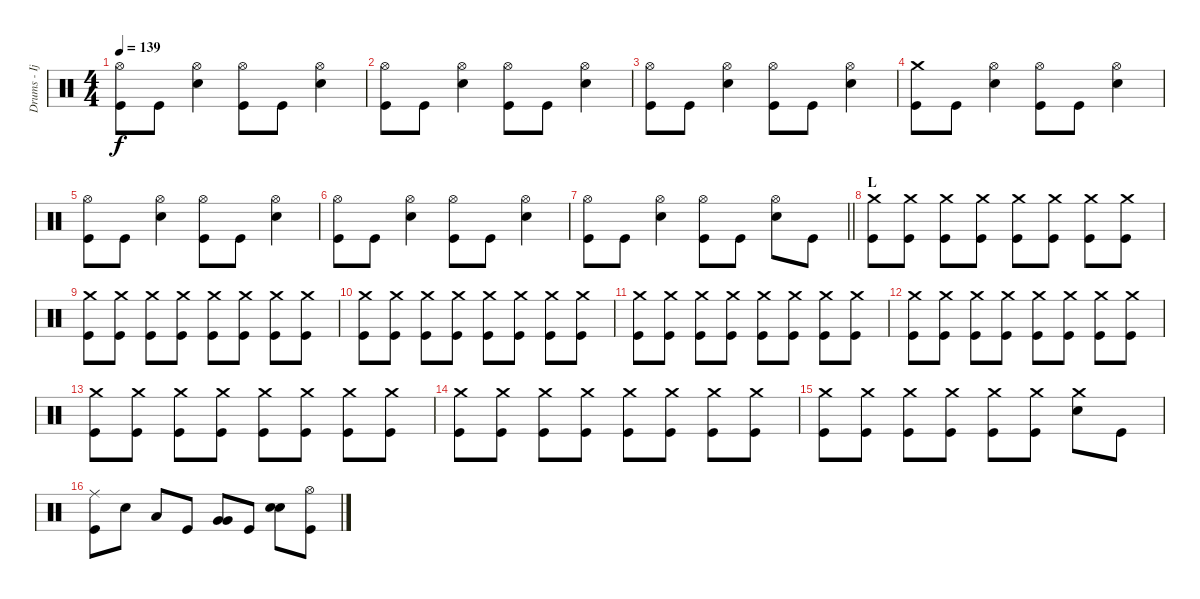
\track ("Drums - Ijichi" "Drums - Ij") {instrument percussion}
\staff {score}
\articulation defaults
\ts (4 4)
\tempo 139
\clef neutral
\ks c
("Hi-Hat (open)" "Kick (hit)").8{dy f} "Kick (hit)".8 ("Hi-Hat (open)" "Electric Snare (hit)").4 ("Hi-Hat (open)" "Kick (hit)").8 "Kick (hit)".8 ("Hi-Hat (open)" "Electric Snare (hit)").4 |
("Hi-Hat (open)" "Kick (hit)").8 "Kick (hit)".8 ("Hi-Hat (open)" "Electric Snare (hit)").4 ("Hi-Hat (open)" "Kick (hit)").8 "Kick (hit)".8 ("Hi-Hat (open)" "Electric Snare (hit)").4 |
("Hi-Hat (open)" "Kick (hit)").8 "Kick (hit)".8 ("Hi-Hat (open)" "Electric Snare (hit)").4 ("Hi-Hat (open)" "Kick (hit)").8 "Kick (hit)".8 ("Hi-Hat (open)" "Electric Snare (hit)").4 |
("Crash medium (hit)" "Kick (hit)").8 "Kick (hit)".8 ("Hi-Hat (open)" "Electric Snare (hit)").4 ("Hi-Hat (open)" "Kick (hit)").8 "Kick (hit)".8 ("Hi-Hat (open)" "Electric Snare (hit)").4 |
("Hi-Hat (open)" "Kick (hit)").8 "Kick (hit)".8 ("Hi-Hat (open)" "Electric Snare (hit)").4 ("Hi-Hat (open)" "Kick (hit)").8 "Kick (hit)".8 ("Hi-Hat (open)" "Electric Snare (hit)").4 |
("Hi-Hat (open)" "Kick (hit)").8 "Kick (hit)".8 ("Hi-Hat (open)" "Electric Snare (hit)").4 ("Hi-Hat (open)" "Kick (hit)").8 "Kick (hit)".8 ("Hi-Hat (open)" "Electric Snare (hit)").4 |
\barLineRight lightlight
("Hi-Hat (open)" "Kick (hit)").8 "Kick (hit)".8 ("Hi-Hat (open)" "Electric Snare (hit)").4 ("Hi-Hat (open)" "Kick (hit)").8 "Kick (hit)".8 ("Hi-Hat (open)" "Electric Snare (hit)").8 "Kick (hit)".8 |
\section ("" "L")
("Crash medium (hit)" "Kick (hit)").8 ("Crash medium (hit)" "Kick (hit)").8 ("Crash medium (hit)" "Kick (hit)").8 ("Crash medium (hit)" "Kick (hit)").8 ("Crash medium (hit)" "Kick (hit)").8 ("Crash medium (hit)" "Kick (hit)").8 ("Crash medium (hit)" "Kick (hit)").8 ("Crash medium (hit)" "Kick (hit)").8 |
("Crash medium (hit)" "Kick (hit)").8 ("Crash medium (hit)" "Kick (hit)").8 ("Crash medium (hit)" "Kick (hit)").8 ("Crash medium (hit)" "Kick (hit)").8 ("Crash medium (hit)" "Kick (hit)").8 ("Crash medium (hit)" "Kick (hit)").8 ("Crash medium (hit)" "Kick (hit)").8 ("Crash medium (hit)" "Kick (hit)").8 |
("Crash medium (hit)" "Kick (hit)").8 ("Crash medium (hit)" "Kick (hit)").8 ("Crash medium (hit)" "Kick (hit)").8 ("Crash medium (hit)" "Kick (hit)").8 ("Crash medium (hit)" "Kick (hit)").8 ("Crash medium (hit)" "Kick (hit)").8 ("Crash medium (hit)" "Kick (hit)").8 ("Crash medium (hit)" "Kick (hit)").8 |
("Crash medium (hit)" "Kick (hit)").8 ("Crash medium (hit)" "Kick (hit)").8 ("Crash medium (hit)" "Kick (hit)").8 ("Crash medium (hit)" "Kick (hit)").8 ("Crash medium (hit)" "Kick (hit)").8 ("Crash medium (hit)" "Kick (hit)").8 ("Crash medium (hit)" "Kick (hit)").8 ("Crash medium (hit)" "Kick (hit)").8 |
("Crash medium (hit)" "Kick (hit)").8 ("Crash medium (hit)" "Kick (hit)").8 ("Crash medium (hit)" "Kick (hit)").8 ("Crash medium (hit)" "Kick (hit)").8 ("Crash medium (hit)" "Kick (hit)").8 ("Crash medium (hit)" "Kick (hit)").8 ("Crash medium (hit)" "Kick (hit)").8 ("Crash medium (hit)" "Kick (hit)").8 |
("Crash medium (hit)" "Kick (hit)").8 ("Crash medium (hit)" "Kick (hit)").8 ("Crash medium (hit)" "Kick (hit)").8 ("Crash medium (hit)" "Kick (hit)").8 ("Crash medium (hit)" "Kick (hit)").8 ("Crash medium (hit)" "Kick (hit)").8 ("Crash medium (hit)" "Kick (hit)").8 ("Crash medium (hit)" "Kick (hit)").8 |
("Crash medium (hit)" "Kick (hit)").8 ("Crash medium (hit)" "Kick (hit)").8 ("Crash medium (hit)" "Kick (hit)").8 ("Crash medium (hit)" "Kick (hit)").8 ("Crash medium (hit)" "Kick (hit)").8 ("Crash medium (hit)" "Kick (hit)").8 ("Crash medium (hit)" "Kick (hit)").8 ("Crash medium (hit)" "Kick (hit)").8 |
("Crash medium (hit)" "Kick (hit)").8 ("Crash medium (hit)" "Kick (hit)").8 ("Crash medium (hit)" "Kick (hit)").8 ("Crash medium (hit)" "Kick (hit)").8 ("Crash medium (hit)" "Kick (hit)").8 ("Crash medium (hit)" "Kick (hit)").8 ("Crash medium (hit)" "Electric Snare (hit)").8 "Kick (hit)".8 |
("Ride (middle)" "Kick (hit)").8 "Electric Snare (hit)".8 "Low Tom (hit)".8 "Kick (hit)".8 ("Very Low Tom (hit)" "Very Low Tom (hit)").8 "Kick (hit)".8 ("Electric Snare (hit)" "Electric Snare (hit)").8 ("Hi-Hat (open)" "Kick (hit)").8
